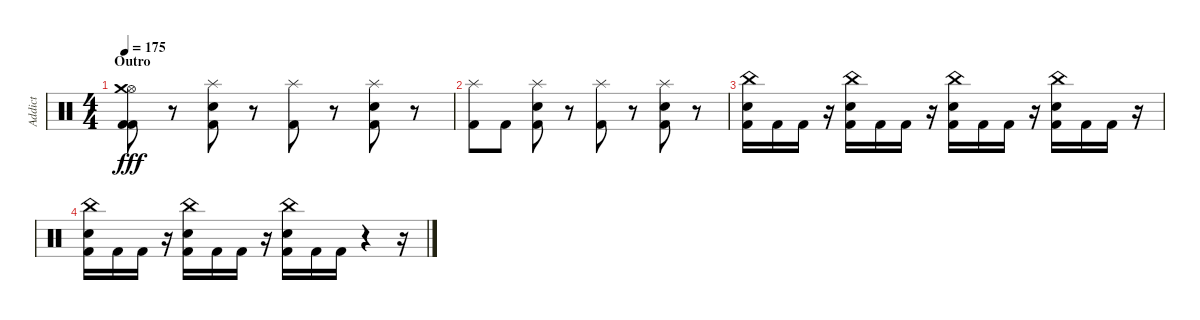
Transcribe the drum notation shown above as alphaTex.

\track ("Addict" "Addict") {instrument percussion}
\staff {score}
\articulation defaults
\ts (4 4)
\section ("" "Outro")
\tempo 175
\clef neutral
\ks c
("Kick (hit) 2" "Hi-Hat (open)" "Kick (hit) 2" "Crash medium (hit)").8{dy fff} r.8 ("Kick (hit) 2" "Snare (hit) 2" "Splash (hit)").8 r.8 ("Kick (hit) 2" "Splash (hit)").8 r.8 ("Kick (hit) 2" "Snare (hit) 2" "Splash (hit)").8 r.8 |
("Kick (hit) 2" "Splash (hit)").8 "Kick (hit) 2".8 ("Kick (hit) 2" "Snare (hit) 2" "Splash (hit)").8 r.8 ("Kick (hit) 2" "Splash (hit)").8 r.8 ("Kick (hit) 2" "Snare (hit) 2" "Splash (hit)").8 r.8 |
("Kick (hit) 2" "Snare (hit) 2" "China (hit)").16 "Kick (hit) 2".16 "Kick (hit) 2".16 r.16 ("Kick (hit) 2" "Snare (hit) 2" "China (hit)").16 "Kick (hit) 2".16 "Kick (hit) 2".16 r.16 ("Kick (hit) 2" "Snare (hit) 2" "China (hit)").16 "Kick (hit) 2".16 "Kick (hit) 2".16 r.16 ("Kick (hit) 2" "Snare (hit) 2" "China (hit)").16 "Kick (hit) 2".16 "Kick (hit) 2".16 r.16 |
("Kick (hit) 2" "Snare (hit) 2" "China (hit)").16 "Kick (hit) 2".16 "Kick (hit) 2".16 r.16 ("Kick (hit) 2" "Snare (hit) 2" "China (hit)").16 "Kick (hit) 2".16 "Kick (hit) 2".16 r.16 ("Kick (hit) 2" "Snare (hit) 2" "China (hit)").16 "Kick (hit) 2".16 "Kick (hit) 2".16 r.4 r.16
